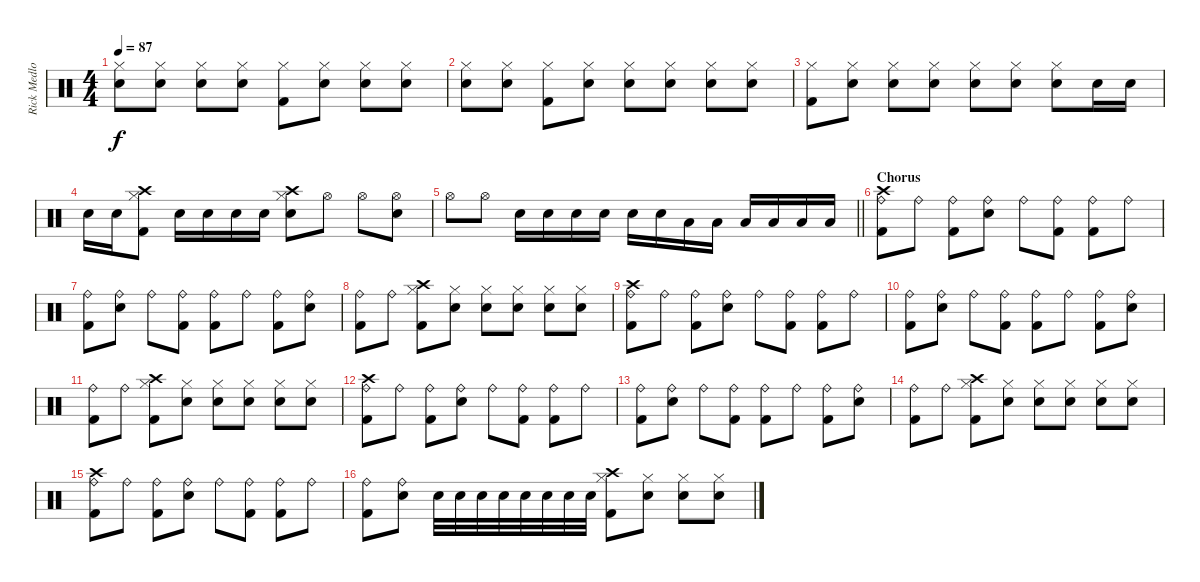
\track ("Rick Medlocke" "Rick Medlo") {instrument percussion}
\staff {score}
\articulation defaults
\ts (4 4)
\tempo 87
\clef neutral
\ks c
("Hi-Hat (closed)" "Electric Snare (hit)").8{dy f} ("Hi-Hat (closed)" "Snare (hit) 2").8 ("Hi-Hat (closed)" "Electric Snare (hit)").8 ("Hi-Hat (closed)" "Electric Snare (hit)").8 ("Hi-Hat (closed)" "Kick (hit) 2").8 ("Hi-Hat (closed)" "Electric Snare (hit)").8 ("Hi-Hat (closed)" "Electric Snare (hit)").8 ("Hi-Hat (closed)" "Snare (hit) 2").8 |
("Hi-Hat (closed)" "Electric Snare (hit)").8 ("Hi-Hat (closed)" "Electric Snare (hit)").8 ("Hi-Hat (closed)" "Kick (hit) 2").8 ("Hi-Hat (closed)" "Electric Snare (hit)").8 ("Hi-Hat (closed)" "Electric Snare (hit)").8 ("Hi-Hat (closed)" "Snare (hit) 2").8 ("Hi-Hat (closed)" "Electric Snare (hit)").8 ("Hi-Hat (closed)" "Electric Snare (hit)").8 |
("Hi-Hat (closed)" "Kick (hit) 2").8 ("Hi-Hat (closed)" "Electric Snare (hit)").8 ("Hi-Hat (closed)" "Electric Snare (hit)").8 ("Hi-Hat (closed)" "Snare (hit) 2").8 ("Hi-Hat (closed)" "Electric Snare (hit)").8 ("Hi-Hat (closed)" "Electric Snare (hit)").8 ("Hi-Hat (closed)" "Snare (hit) 2").8 "Electric Snare (hit)".16 "Electric Snare (hit)".16 |
"Electric Snare (hit)".16 "Electric Snare (hit)".16 ("Crash high (hit)" "Hi-Hat (closed)" "Kick (hit) 2").8 "Electric Snare (hit)".16 "Electric Snare (hit)".16 "Electric Snare (hit)".16 "Electric Snare (hit)".16 ("Crash high (hit)" "Hi-Hat (closed)" "Snare (hit) 2").8 "Hi-Hat (open)".8 "Hi-Hat (open)".8 ("Hi-Hat (open)" "Electric Snare (hit)").8 |
\barLineRight lightlight "Hi-Hat (open)".8 "Hi-Hat (open)".8 "Electric Snare (hit)".16 "Electric Snare (hit)".16 "Electric Snare (hit)".16 "Electric Snare (hit)".16 "Electric Snare (hit)".16 "Electric Snare (hit)".16 "Low Tom (hit)".16 "Low Tom (hit)".16 "Low Tom (hit)".16 "Low Tom (hit)".16 "Low Tom (hit)".16 "Low Tom (hit)".16
|
\section ("" "Chorus")
("Crash high (hit)" "Ride (bell)" "Kick (hit) 2").8 "Ride (bell)".8 ("Ride (bell)" "Kick (hit) 2").8 ("Ride (bell)" "Electric Snare (hit)").8 "Ride (bell)".8 ("Ride (bell)" "Kick (hit) 2").8 ("Ride (bell)" "Kick (hit) 2").8 "Ride (bell)".8 |
("Ride (bell)" "Kick (hit) 2").8 ("Ride (bell)" "Electric Snare (hit)").8 "Ride (bell)".8 ("Ride (bell)" "Kick (hit) 2").8 ("Ride (bell)" "Kick (hit) 2").8 "Ride (bell)".8 ("Ride (bell)" "Kick (hit) 2").8 ("Ride (bell)" "Electric Snare (hit)").8 |
("Ride (bell)" "Kick (hit) 2").8 "Ride (bell)".8 ("Crash high (hit)" "Hi-Hat (closed)" "Kick (hit) 2").8 ("Hi-Hat (closed)" "Electric Snare (hit)").8 ("Hi-Hat (closed)" "Electric Snare (hit)").8 ("Hi-Hat (closed)" "Snare (hit) 2").8 ("Hi-Hat (closed)" "Electric Snare (hit)").8 ("Hi-Hat (closed)" "Electric Snare (hit)").8 |
("Crash high (hit)" "Ride (bell)" "Kick (hit) 2").8 "Ride (bell)".8 ("Ride (bell)" "Kick (hit) 2").8 ("Ride (bell)" "Electric Snare (hit)").8 "Ride (bell)".8 ("Ride (bell)" "Kick (hit) 2").8 ("Ride (bell)" "Kick (hit) 2").8 "Ride (bell)".8 |
("Ride (bell)" "Kick (hit) 2").8 ("Ride (bell)" "Electric Snare (hit)").8 "Ride (bell)".8 ("Ride (bell)" "Kick (hit) 2").8 ("Ride (bell)" "Kick (hit) 2").8 "Ride (bell)".8 ("Ride (bell)" "Kick (hit) 2").8 ("Ride (bell)" "Electric Snare (hit)").8 |
("Ride (bell)" "Kick (hit) 2").8 "Ride (bell)".8 ("Crash high (hit)" "Hi-Hat (closed)" "Kick (hit) 2").8 ("Hi-Hat (closed)" "Electric Snare (hit)").8 ("Hi-Hat (closed)" "Electric Snare (hit)").8 ("Hi-Hat (closed)" "Snare (hit) 2").8 ("Hi-Hat (closed)" "Electric Snare (hit)").8 ("Hi-Hat (closed)" "Electric Snare (hit)").8 |
("Crash high (hit)" "Ride (bell)" "Kick (hit) 2").8 "Ride (bell)".8 ("Ride (bell)" "Kick (hit) 2").8 ("Ride (bell)" "Electric Snare (hit)").8 "Ride (bell)".8 ("Ride (bell)" "Kick (hit) 2").8 ("Ride (bell)" "Kick (hit) 2").8 "Ride (bell)".8 |
("Ride (bell)" "Kick (hit) 2").8 ("Ride (bell)" "Electric Snare (hit)").8 "Ride (bell)".8 ("Ride (bell)" "Kick (hit) 2").8 ("Ride (bell)" "Kick (hit) 2").8 "Ride (bell)".8 ("Ride (bell)" "Kick (hit) 2").8 ("Ride (bell)" "Electric Snare (hit)").8 |
("Ride (bell)" "Kick (hit) 2").8 "Ride (bell)".8 ("Crash high (hit)" "Hi-Hat (closed)" "Kick (hit) 2").8 ("Hi-Hat (closed)" "Electric Snare (hit)").8 ("Hi-Hat (closed)" "Electric Snare (hit)").8 ("Hi-Hat (closed)" "Snare (hit) 2").8 ("Hi-Hat (closed)" "Electric Snare (hit)").8 ("Hi-Hat (closed)" "Electric Snare (hit)").8 |
("Crash high (hit)" "Ride (bell)" "Kick (hit) 2").8 "Ride (bell)".8 ("Ride (bell)" "Kick (hit) 2").8 ("Ride (bell)" "Electric Snare (hit)").8 "Ride (bell)".8 ("Ride (bell)" "Kick (hit) 2").8 ("Ride (bell)" "Kick (hit) 2").8 "Ride (bell)".8 |
("Ride (bell)" "Kick (hit) 2").8 ("Ride (bell)" "Electric Snare (hit)").8 "Electric Snare (hit)".32 "Electric Snare (hit)".32 "Electric Snare (hit)".32 "Electric Snare (hit)".32 "Electric Snare (hit)".32 "Electric Snare (hit)".32 "Electric Snare (hit)".32 "Electric Snare (hit)".32 ("Crash high (hit)" "Hi-Hat (closed)" "Kick (hit) 2").8 ("Hi-Hat (closed)" "Electric Snare (hit)").8 ("Hi-Hat (closed)" "Electric Snare (hit)").8 ("Hi-Hat (closed)" "Snare (hit) 2").8
